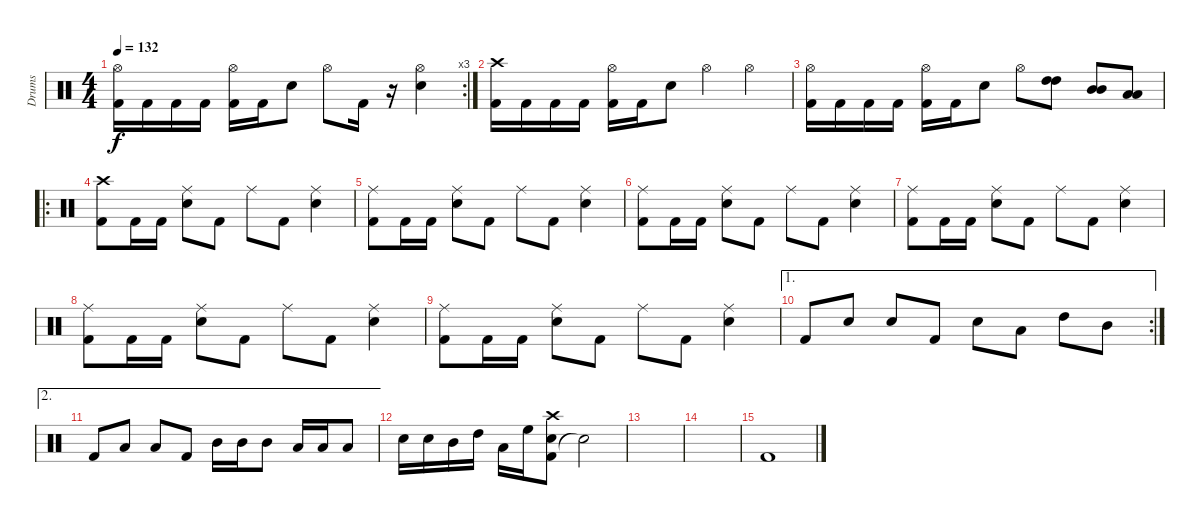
\track ("Drums" "Drums") {instrument percussion}
\staff {score}
\articulation defaults
\rc 3
\ts (4 4)
\tempo 132
\clef neutral
\ks c
("Kick (hit) 2" "Hi-Hat (open)").16{dy f} "Kick (hit) 2".16 "Kick (hit) 2".16 "Kick (hit) 2".16 ("Kick (hit) 2" "Hi-Hat (open)").16 "Kick (hit) 2".16 "Snare (hit) 2".8 "Hi-Hat (open)".8 "Kick (hit) 2".16 r.16 ("Snare (hit) 2" "Hi-Hat (open)").4 |
("Kick (hit) 2" "Crash high (hit)").16 "Kick (hit) 2".16 "Kick (hit) 2".16 "Kick (hit) 2".16 ("Kick (hit) 2" "Hi-Hat (open)").16 "Kick (hit) 2".16 "Snare (hit) 2".8 "Hi-Hat (open)".4 "Hi-Hat (open)".4 |
("Kick (hit) 2" "Hi-Hat (open)").16 "Kick (hit) 2".16 "Kick (hit) 2".16 "Kick (hit) 2".16 ("Kick (hit) 2" "Hi-Hat (open)").16 "Kick (hit) 2".16 "Snare (hit) 2".8 "Hi-Hat (open)".8 ("High Tom (hit)" "High Tom (hit)").8 ("Mid Tom (hit)" "Mid Tom (hit)").8 ("Low Tom (hit)" "Low Tom (hit)").8 |
\ro
("Kick (hit) 2" "Crash high (hit)").8 "Kick (hit) 2".16 "Kick (hit) 2".16 ("Snare (hit) 2" "Ride (middle)").8 "Kick (hit) 2".8 "Ride (middle)".8 "Kick (hit) 2".8 ("Snare (hit) 2" "Ride (middle)").4 |
("Kick (hit) 2" "Ride (middle)").8 "Kick (hit) 2".16 "Kick (hit) 2".16 ("Snare (hit) 2" "Ride (middle)").8 "Kick (hit) 2".8 "Ride (middle)".8 "Kick (hit) 2".8 ("Snare (hit) 2" "Ride (middle)").4 |
("Kick (hit) 2" "Ride (middle)").8 "Kick (hit) 2".16 "Kick (hit) 2".16 ("Snare (hit) 2" "Ride (middle)").8 "Kick (hit) 2".8 "Ride (middle)".8 "Kick (hit) 2".8 ("Snare (hit) 2" "Ride (middle)").4 |
("Kick (hit) 2" "Ride (middle)").8 "Kick (hit) 2".16 "Kick (hit) 2".16 ("Snare (hit) 2" "Ride (middle)").8 "Kick (hit) 2".8 "Ride (middle)".8 "Kick (hit) 2".8 ("Snare (hit) 2" "Ride (middle)").4 |
("Kick (hit) 2" "Ride (middle)").8 "Kick (hit) 2".16 "Kick (hit) 2".16 ("Snare (hit) 2" "Ride (middle)").8 "Kick (hit) 2".8 "Ride (middle)".8 "Kick (hit) 2".8 ("Snare (hit) 2" "Ride (middle)").4 |
("Kick (hit) 2" "Ride (middle)").8 "Kick (hit) 2".16 "Kick (hit) 2".16 ("Snare (hit) 2" "Ride (middle)").8 "Kick (hit) 2".8 "Ride (middle)".8 "Kick (hit) 2".8 ("Snare (hit) 2" "Ride (middle)").4 |
\ae 1
\rc 2 "Kick (hit) 2".8 "Snare (hit) 2".8 "Snare (hit) 2".8 "Kick (hit) 2".8 "Snare (hit) 2".8 "Low Tom (hit)".8 "High Tom (hit)".8 "Mid Tom (hit)".8
|
\ae 2 "Kick (hit) 2".8 "Low Tom (hit)".8 "Low Tom (hit)".8 "Kick (hit) 2".8 "Mid Tom (hit)".16 "Mid Tom (hit)".16 "Mid Tom (hit)".8 "Low Tom (hit)".16 "Low Tom (hit)".16 "Low Tom (hit)".8
|
"Snare (hit) 2".16 "Snare (hit) 2".16 "Mid Tom (hit)".16 "High Tom (hit)".16 "Low Tom (hit)".16 "High Floor Tom (hit)".16 ("Kick (hit) 2" "Snare (hit) 2" "Crash high (hit)").8 "Snare (hit)"{t}.2 |
|
|
"Kick (hit) 2".1
